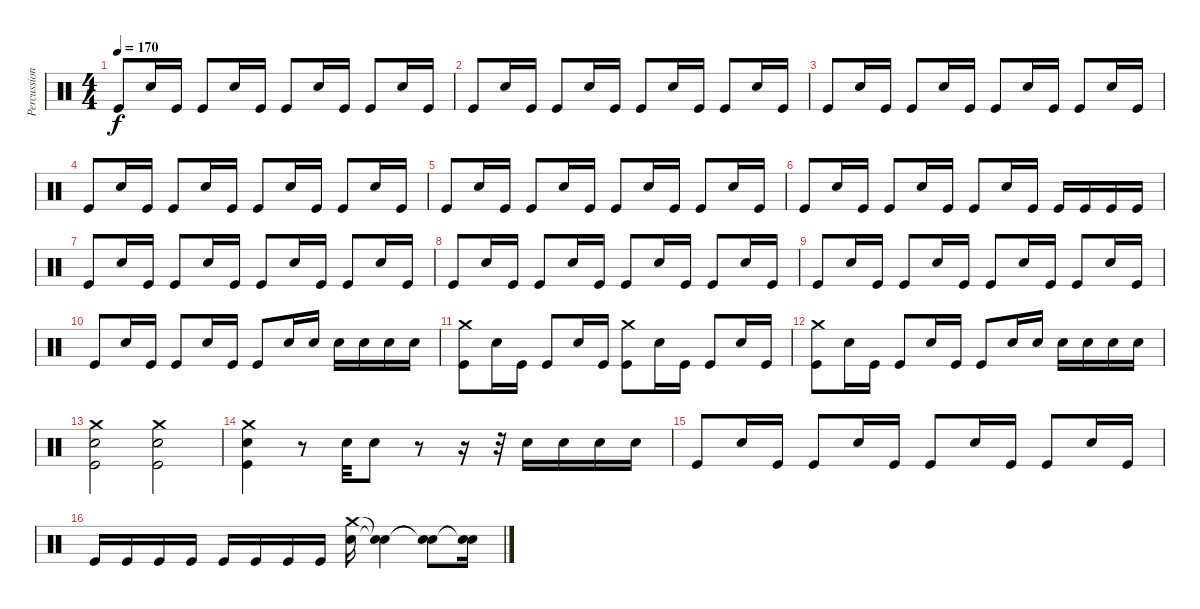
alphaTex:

\track ("Percussions" "Percussion") {instrument percussion}
\staff {score}
\articulation defaults
\ts (4 4)
\tempo 170
\clef neutral
\ks c "Kick (hit)".8{dy f} "Snare (hit) 2".16 "Kick (hit)".16 "Kick (hit)".8 "Snare (hit) 2".16 "Kick (hit)".16 "Kick (hit)".8 "Snare (hit) 2".16 "Kick (hit)".16 "Kick (hit)".8 "Snare (hit) 2".16 "Kick (hit)".16
|
"Kick (hit)".8 "Snare (hit) 2".16 "Kick (hit)".16 "Kick (hit)".8 "Snare (hit) 2".16 "Kick (hit)".16 "Kick (hit)".8 "Snare (hit) 2".16 "Kick (hit)".16 "Kick (hit)".8 "Snare (hit) 2".16 "Kick (hit)".16 |
"Kick (hit)".8 "Snare (hit) 2".16 "Kick (hit)".16 "Kick (hit)".8 "Snare (hit) 2".16 "Kick (hit)".16 "Kick (hit)".8 "Snare (hit) 2".16 "Kick (hit)".16 "Kick (hit)".8 "Snare (hit) 2".16 "Kick (hit)".16 |
"Kick (hit)".8 "Snare (hit) 2".16 "Kick (hit)".16 "Kick (hit)".8 "Snare (hit) 2".16 "Kick (hit)".16 "Kick (hit)".8 "Snare (hit) 2".16 "Kick (hit)".16 "Kick (hit)".8 "Snare (hit) 2".16 "Kick (hit)".16 |
"Kick (hit)".8 "Snare (hit) 2".16 "Kick (hit)".16 "Kick (hit)".8 "Snare (hit) 2".16 "Kick (hit)".16 "Kick (hit)".8 "Snare (hit) 2".16 "Kick (hit)".16 "Kick (hit)".8 "Snare (hit) 2".16 "Kick (hit)".16 |
"Kick (hit)".8 "Snare (hit) 2".16 "Kick (hit)".16 "Kick (hit)".8 "Snare (hit) 2".16 "Kick (hit)".16 "Kick (hit)".8 "Snare (hit) 2".16 "Kick (hit)".16 "Kick (hit)".16 "Kick (hit)".16 "Kick (hit)".16 "Kick (hit)".16 |
"Kick (hit)".8 "Snare (hit) 2".16 "Kick (hit)".16 "Kick (hit)".8 "Snare (hit) 2".16 "Kick (hit)".16 "Kick (hit)".8 "Snare (hit) 2".16 "Kick (hit)".16 "Kick (hit)".8 "Snare (hit) 2".16 "Kick (hit)".16 |
"Kick (hit)".8 "Snare (hit) 2".16 "Kick (hit)".16 "Kick (hit)".8 "Snare (hit) 2".16 "Kick (hit)".16 "Kick (hit)".8 "Snare (hit) 2".16 "Kick (hit)".16 "Kick (hit)".8 "Snare (hit) 2".16 "Kick (hit)".16 |
"Kick (hit)".8 "Snare (hit) 2".16 "Kick (hit)".16 "Kick (hit)".8 "Snare (hit) 2".16 "Kick (hit)".16 "Kick (hit)".8 "Snare (hit) 2".16 "Kick (hit)".16 "Kick (hit)".8 "Snare (hit) 2".16 "Kick (hit)".16 |
"Kick (hit)".8 "Snare (hit) 2".16 "Kick (hit)".16 "Kick (hit)".8 "Snare (hit) 2".16 "Kick (hit)".16 "Kick (hit)".8 "Snare (hit) 2".16 "Snare (hit) 2".16 "Snare (hit) 2".16 "Snare (hit) 2".16 "Snare (hit) 2".16 "Snare (hit) 2".16 |
("Crash medium (hit)" "Kick (hit)").8 "Snare (hit) 2".16 "Kick (hit)".16 "Kick (hit)".8 "Snare (hit) 2".16 "Kick (hit)".16 ("Crash medium (hit)" "Kick (hit)").8 "Snare (hit) 2".16 "Kick (hit)".16 "Kick (hit)".8 "Snare (hit) 2".16 "Kick (hit)".16 |
("Crash medium (hit)" "Kick (hit)").8 "Snare (hit) 2".16 "Kick (hit)".16 "Kick (hit)".8 "Snare (hit) 2".16 "Kick (hit)".16 "Kick (hit)".8 "Snare (hit) 2".16 "Snare (hit) 2".16 "Snare (hit) 2".16 "Snare (hit) 2".16 "Snare (hit) 2".16 "Snare (hit) 2".16 |
("Crash medium (hit)" "Snare (hit) 2" "Kick (hit)").2 ("Crash medium (hit)" "Snare (hit) 2" "Kick (hit)").2 |
("Crash medium (hit)" "Snare (hit) 2" "Kick (hit)").4 r.8 "Snare (hit) 2".32 "Snare (hit) 2".8 r.8 r.16 r.32 "Snare (hit) 2".16 "Snare (hit) 2".16 "Snare (hit) 2".16 "Snare (hit) 2".16 |
"Kick (hit)".8 "Snare (hit) 2".16 "Kick (hit)".16 "Kick (hit)".8 "Snare (hit) 2".16 "Kick (hit)".16 "Kick (hit)".8 "Snare (hit) 2".16 "Kick (hit)".16 "Kick (hit)".8 "Snare (hit) 2".16 "Kick (hit)".16 |
"Kick (hit)".16 "Kick (hit)".16 "Kick (hit)".16 "Kick (hit)".16 "Kick (hit)".16 "Kick (hit)".16 "Kick (hit)".16 "Kick (hit)".16 ("Crash medium (hit)" "Snare (hit) 2").16 ("Snare (hit)"{t} "Snare (hit)"{t}).4 ("Snare (hit)"{t} "Snare (hit)"{t}).8 ("Snare (hit)"{t} "Snare (hit)"{t}).16
